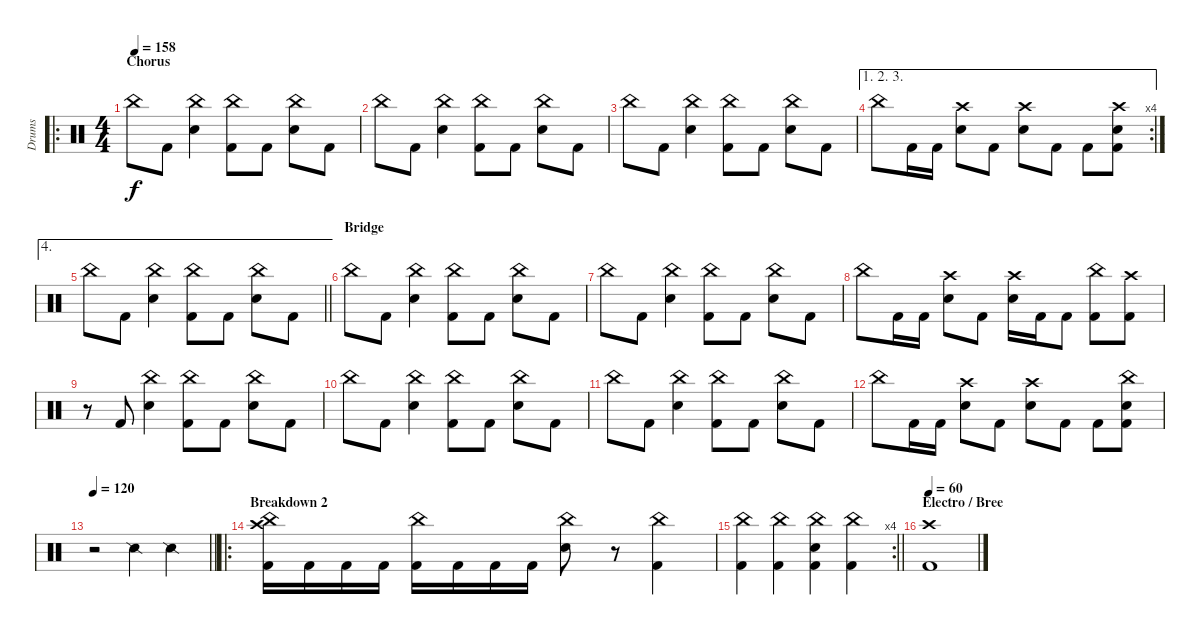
\track ("Drums" "Drums") {instrument percussion}
\staff {score}
\articulation defaults
\ro
\ts (4 4)
\section ("" "Chorus")
\tempo 158
\clef neutral
\ks c "China (hit)".8{dy f} "Kick (hit) 2".8
("China (hit)" "Snare (hit) 2").4 ("China (hit)" "Kick (hit) 2").8 "Kick (hit) 2".8 ("China (hit)" "Snare (hit) 2").8 "Kick (hit) 2".8 |
"China (hit)".8 "Kick (hit) 2".8 ("China (hit)" "Snare (hit) 2").4 ("China (hit)" "Kick (hit) 2").8 "Kick (hit) 2".8 ("China (hit)" "Snare (hit) 2").8 "Kick (hit) 2".8 |
"China (hit)".8 "Kick (hit) 2".8 ("China (hit)" "Snare (hit) 2").4 ("China (hit)" "Kick (hit) 2").8 "Kick (hit) 2".8 ("China (hit)" "Snare (hit) 2").8 "Kick (hit) 2".8 |
\ae (1 2 3)
\rc 4 "China (hit)".8 "Kick (hit) 2".16 "Kick (hit) 2".16
("Crash high (hit)" "Snare (hit) 2").8 "Kick (hit) 2".8 ("Crash high (hit)" "Snare (hit) 2").8 "Kick (hit) 2".8 "Kick (hit) 2".8 ("Crash high (hit)" "Snare (hit) 2" "Kick (hit) 2").8 |
\ae 4
\barLineRight lightlight "China (hit)".8 "Kick (hit) 2".8
("China (hit)" "Snare (hit) 2").4 ("China (hit)" "Kick (hit) 2").8 "Kick (hit) 2".8 ("China (hit)" "Snare (hit) 2").8 "Kick (hit) 2".8 |
\section ("" "Bridge")
"China (hit)".8 "Kick (hit) 2".8 ("China (hit)" "Snare (hit) 2").4 ("China (hit)" "Kick (hit) 2").8 "Kick (hit) 2".8 ("China (hit)" "Snare (hit) 2").8 "Kick (hit) 2".8 |
"China (hit)".8 "Kick (hit) 2".8 ("China (hit)" "Snare (hit) 2").4 ("China (hit)" "Kick (hit) 2").8 "Kick (hit) 2".8 ("China (hit)" "Snare (hit) 2").8 "Kick (hit) 2".8 |
"China (hit)".8 "Kick (hit) 2".16 "Kick (hit) 2".16 ("Crash high (hit)" "Snare (hit) 2").8 "Kick (hit) 2".8 ("Crash high (hit)" "Snare (hit) 2").16 "Kick (hit) 2".16 "Kick (hit) 2".8 ("China (hit)" "Kick (hit) 2").8 ("Crash high (hit)" "Kick (hit) 2").8 |
r.8 "Kick (hit) 2".8 ("China (hit)" "Snare (hit) 2").4 ("China (hit)" "Kick (hit) 2").8 "Kick (hit) 2".8 ("China (hit)" "Snare (hit) 2").8 "Kick (hit) 2".8 |
"China (hit)".8 "Kick (hit) 2".8 ("China (hit)" "Snare (hit) 2").4 ("China (hit)" "Kick (hit) 2").8 "Kick (hit) 2".8 ("China (hit)" "Snare (hit) 2").8 "Kick (hit) 2".8 |
"China (hit)".8 "Kick (hit) 2".8 ("China (hit)" "Snare (hit) 2").4 ("China (hit)" "Kick (hit) 2").8 "Kick (hit) 2".8 ("China (hit)" "Snare (hit) 2").8 "Kick (hit) 2".8 |
"China (hit)".8 "Kick (hit) 2".16 "Kick (hit) 2".16 ("Crash high (hit)" "Snare (hit) 2").8 "Kick (hit) 2".8 ("Crash high (hit)" "Snare (hit) 2").8 "Kick (hit) 2".8 "Kick (hit) 2".8 ("China (hit)" "Snare (hit) 2" "Kick (hit) 2").8 |
\tempo 120
\barLineRight lightlight
r.2 "Snare (side stick) 2".4 "Snare (side stick) 2".4 |
\ro
\section ("" "Breakdown 2")
("Crash high (hit)" "China (hit)" "Kick (hit) 2").16 "Kick (hit) 2".16 "Kick (hit) 2".16 "Kick (hit) 2".16 ("China (hit)" "Kick (hit) 2").16 "Kick (hit) 2".16 "Kick (hit) 2".16 "Kick (hit) 2".16 ("China (hit)" "Snare (hit) 2").8 r.8 ("China (hit)" "Kick (hit) 2").4 |
\rc 4
\barLineRight lightlight
("China (hit)" "Kick (hit) 2").4 ("China (hit)" "Kick (hit) 2").4 ("China (hit)" "Snare (hit) 2" "Kick (hit) 2").4 ("China (hit)" "Kick (hit) 2").4 |
\section ("" "Electro / Bree")
\tempo 60
("Crash high (hit)" "Kick (hit) 2").1
